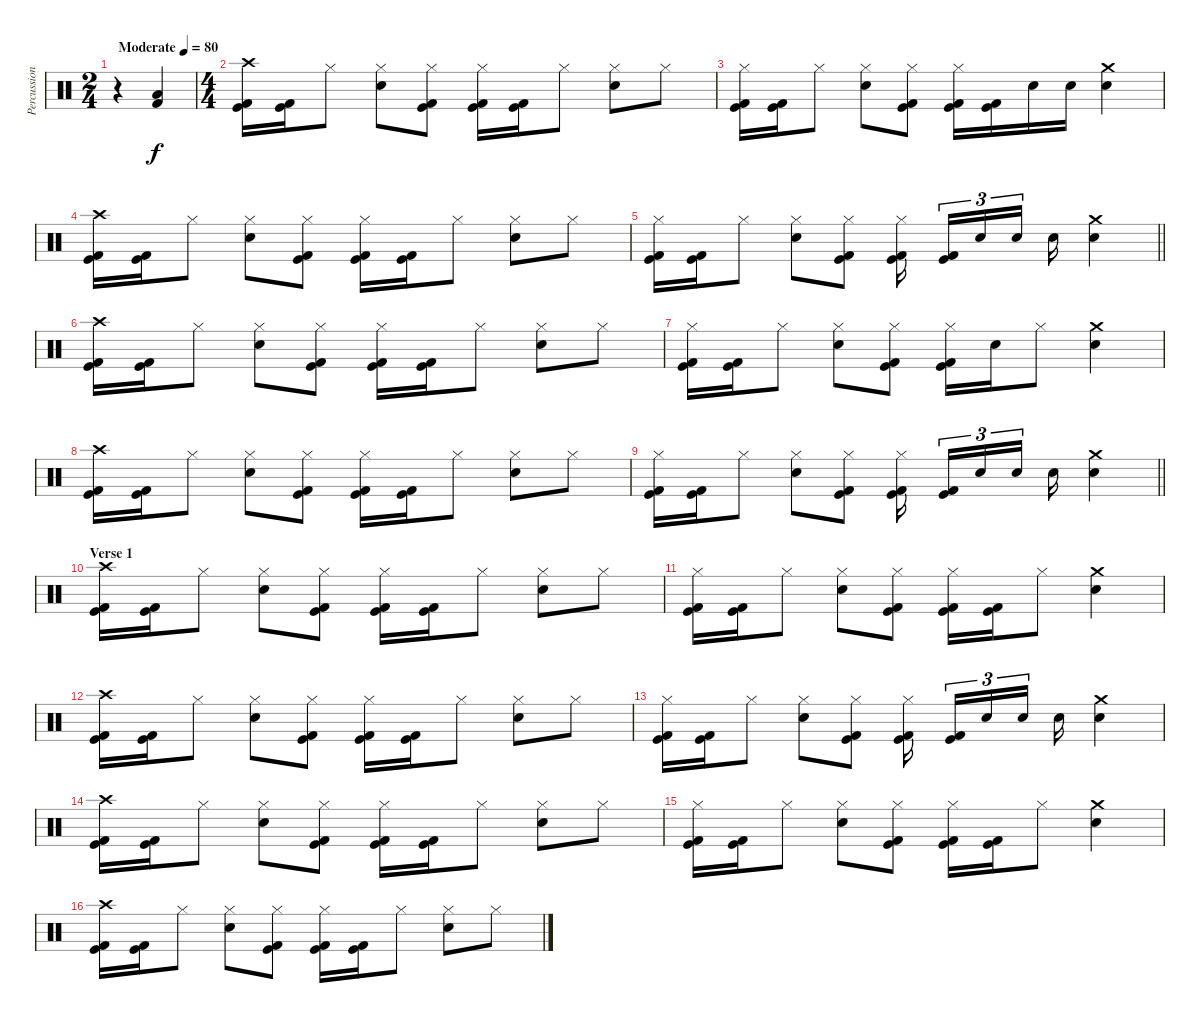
\track ("Percussion" "Percussion") {instrument percussion}
\staff {score}
\articulation defaults
\ts (2 4)
\tempo (80 "Moderate")
\clef neutral
\ks c
r.4{dy f} ("Low Floor Tom (hit)" "Kick (hit) 2").4 |
\ts (4 4)
("Crash high (hit)" "Kick (hit)" "Kick (hit) 2").16 ("Kick (hit)" "Kick (hit) 2").16 "Hi-Hat (closed)".8 ("Hi-Hat (closed)" "Electric Snare (hit)").8 ("Hi-Hat (closed)" "Kick (hit)" "Kick (hit) 2").8 ("Hi-Hat (closed)" "Kick (hit)" "Kick (hit) 2").16 ("Kick (hit)" "Kick (hit) 2").16 "Hi-Hat (closed)".8 ("Hi-Hat (closed)" "Electric Snare (hit)").8 "Hi-Hat (closed)".8 |
("Hi-Hat (closed)" "Kick (hit)" "Kick (hit) 2").16 ("Kick (hit)" "Kick (hit) 2").16 "Hi-Hat (closed)".8 ("Hi-Hat (closed)" "Electric Snare (hit)").8 ("Hi-Hat (closed)" "Kick (hit)" "Kick (hit) 2").8 ("Hi-Hat (closed)" "Kick (hit)" "Kick (hit) 2").16 ("Kick (hit)" "Kick (hit) 2").16 "Electric Snare (hit)".16 "Electric Snare (hit)".16 ("Crash medium (hit)" "Electric Snare (hit)").4 |
("Crash high (hit)" "Kick (hit)" "Kick (hit) 2").16 ("Kick (hit)" "Kick (hit) 2").16 "Hi-Hat (closed)".8 ("Hi-Hat (closed)" "Electric Snare (hit)").8 ("Hi-Hat (closed)" "Kick (hit)" "Kick (hit) 2").8 ("Hi-Hat (closed)" "Kick (hit)" "Kick (hit) 2").16 ("Kick (hit)" "Kick (hit) 2").16 "Hi-Hat (closed)".8 ("Hi-Hat (closed)" "Electric Snare (hit)").8 "Hi-Hat (closed)".8 |
\barLineRight lightlight
("Hi-Hat (closed)" "Kick (hit)" "Kick (hit) 2").16 ("Kick (hit)" "Kick (hit) 2").16 "Hi-Hat (closed)".8 ("Hi-Hat (closed)" "Electric Snare (hit)").8 ("Hi-Hat (closed)" "Kick (hit)" "Kick (hit) 2").8 ("Hi-Hat (closed)" "Kick (hit)" "Kick (hit) 2").16{beam splitsecondary} ("Kick (hit)" "Kick (hit) 2").16{tu (3 2)} "Electric Snare (hit)".16{tu (3 2)} "Electric Snare (hit)".16{tu (3 2) beam splitsecondary} "Electric Snare (hit)".16 ("Crash medium (hit)" "Electric Snare (hit)").4 |
\section ("" "")
("Crash high (hit)" "Kick (hit)" "Kick (hit) 2").16 ("Kick (hit)" "Kick (hit) 2").16 "Hi-Hat (closed)".8 ("Hi-Hat (closed)" "Electric Snare (hit)").8 ("Hi-Hat (closed)" "Kick (hit)" "Kick (hit) 2").8 ("Hi-Hat (closed)" "Kick (hit)" "Kick (hit) 2").16 ("Kick (hit)" "Kick (hit) 2").16 "Hi-Hat (closed)".8 ("Hi-Hat (closed)" "Electric Snare (hit)").8 "Hi-Hat (closed)".8 |
("Hi-Hat (closed)" "Kick (hit)" "Kick (hit) 2").16 ("Kick (hit)" "Kick (hit) 2").16 "Hi-Hat (closed)".8 ("Hi-Hat (closed)" "Electric Snare (hit)").8 ("Hi-Hat (closed)" "Kick (hit)" "Kick (hit) 2").8 ("Hi-Hat (closed)" "Kick (hit)" "Kick (hit) 2").16 "Electric Snare (hit)".16 "Hi-Hat (closed)".8 ("Crash medium (hit)" "Electric Snare (hit)").4 |
("Crash high (hit)" "Kick (hit)" "Kick (hit) 2").16 ("Kick (hit)" "Kick (hit) 2").16 "Hi-Hat (closed)".8 ("Hi-Hat (closed)" "Electric Snare (hit)").8 ("Hi-Hat (closed)" "Kick (hit)" "Kick (hit) 2").8 ("Hi-Hat (closed)" "Kick (hit)" "Kick (hit) 2").16 ("Kick (hit)" "Kick (hit) 2").16 "Hi-Hat (closed)".8 ("Hi-Hat (closed)" "Electric Snare (hit)").8 "Hi-Hat (closed)".8 |
\barLineRight lightlight
("Hi-Hat (closed)" "Kick (hit)" "Kick (hit) 2").16 ("Kick (hit)" "Kick (hit) 2").16 "Hi-Hat (closed)".8 ("Hi-Hat (closed)" "Electric Snare (hit)").8 ("Hi-Hat (closed)" "Kick (hit)" "Kick (hit) 2").8 ("Hi-Hat (closed)" "Kick (hit)" "Kick (hit) 2").16{beam splitsecondary} ("Kick (hit)" "Kick (hit) 2").16{tu (3 2)} "Electric Snare (hit)".16{tu (3 2)} "Electric Snare (hit)".16{tu (3 2) beam splitsecondary} "Electric Snare (hit)".16 ("Crash medium (hit)" "Electric Snare (hit)").4 |
\section ("" "Verse 1")
("Crash high (hit)" "Kick (hit)" "Kick (hit) 2").16 ("Kick (hit)" "Kick (hit) 2").16 "Hi-Hat (closed)".8 ("Hi-Hat (closed)" "Electric Snare (hit)").8 ("Hi-Hat (closed)" "Kick (hit)" "Kick (hit) 2").8 ("Hi-Hat (closed)" "Kick (hit)" "Kick (hit) 2").16 ("Kick (hit)" "Kick (hit) 2").16 "Hi-Hat (closed)".8 ("Hi-Hat (closed)" "Electric Snare (hit)").8 "Hi-Hat (closed)".8 |
("Hi-Hat (closed)" "Kick (hit)" "Kick (hit) 2").16 ("Kick (hit)" "Kick (hit) 2").16 "Hi-Hat (closed)".8 ("Hi-Hat (closed)" "Electric Snare (hit)").8 ("Hi-Hat (closed)" "Kick (hit)" "Kick (hit) 2").8 ("Hi-Hat (closed)" "Kick (hit)" "Kick (hit) 2").16 ("Kick (hit)" "Kick (hit) 2").16 "Hi-Hat (closed)".8 ("Crash medium (hit)" "Electric Snare (hit)").4 |
("Crash high (hit)" "Kick (hit)" "Kick (hit) 2").16 ("Kick (hit)" "Kick (hit) 2").16 "Hi-Hat (closed)".8 ("Hi-Hat (closed)" "Electric Snare (hit)").8 ("Hi-Hat (closed)" "Kick (hit)" "Kick (hit) 2").8 ("Hi-Hat (closed)" "Kick (hit)" "Kick (hit) 2").16 ("Kick (hit)" "Kick (hit) 2").16 "Hi-Hat (closed)".8 ("Hi-Hat (closed)" "Electric Snare (hit)").8 "Hi-Hat (closed)".8 |
("Hi-Hat (closed)" "Kick (hit)" "Kick (hit) 2").16 ("Kick (hit)" "Kick (hit) 2").16 "Hi-Hat (closed)".8 ("Hi-Hat (closed)" "Electric Snare (hit)").8 ("Hi-Hat (closed)" "Kick (hit)" "Kick (hit) 2").8 ("Hi-Hat (closed)" "Kick (hit)" "Kick (hit) 2").16{beam splitsecondary} ("Kick (hit)" "Kick (hit) 2").16{tu (3 2)} "Electric Snare (hit)".16{tu (3 2)} "Electric Snare (hit)".16{tu (3 2) beam splitsecondary} "Electric Snare (hit)".16 ("Crash medium (hit)" "Electric Snare (hit)").4 |
("Crash high (hit)" "Kick (hit)" "Kick (hit) 2").16 ("Kick (hit)" "Kick (hit) 2").16 "Hi-Hat (closed)".8 ("Hi-Hat (closed)" "Electric Snare (hit)").8 ("Hi-Hat (closed)" "Kick (hit)" "Kick (hit) 2").8 ("Hi-Hat (closed)" "Kick (hit)" "Kick (hit) 2").16 ("Kick (hit)" "Kick (hit) 2").16 "Hi-Hat (closed)".8 ("Hi-Hat (closed)" "Electric Snare (hit)").8 "Hi-Hat (closed)".8 |
("Hi-Hat (closed)" "Kick (hit)" "Kick (hit) 2").16 ("Kick (hit)" "Kick (hit) 2").16 "Hi-Hat (closed)".8 ("Hi-Hat (closed)" "Electric Snare (hit)").8 ("Hi-Hat (closed)" "Kick (hit)" "Kick (hit) 2").8 ("Hi-Hat (closed)" "Kick (hit)" "Kick (hit) 2").16 ("Kick (hit)" "Kick (hit) 2").16 "Hi-Hat (closed)".8 ("Crash medium (hit)" "Electric Snare (hit)").4 |
("Crash high (hit)" "Kick (hit)" "Kick (hit) 2").16 ("Kick (hit)" "Kick (hit) 2").16 "Hi-Hat (closed)".8 ("Hi-Hat (closed)" "Electric Snare (hit)").8 ("Hi-Hat (closed)" "Kick (hit)" "Kick (hit) 2").8 ("Hi-Hat (closed)" "Kick (hit)" "Kick (hit) 2").16 ("Kick (hit)" "Kick (hit) 2").16 "Hi-Hat (closed)".8 ("Hi-Hat (closed)" "Electric Snare (hit)").8 "Hi-Hat (closed)".8
